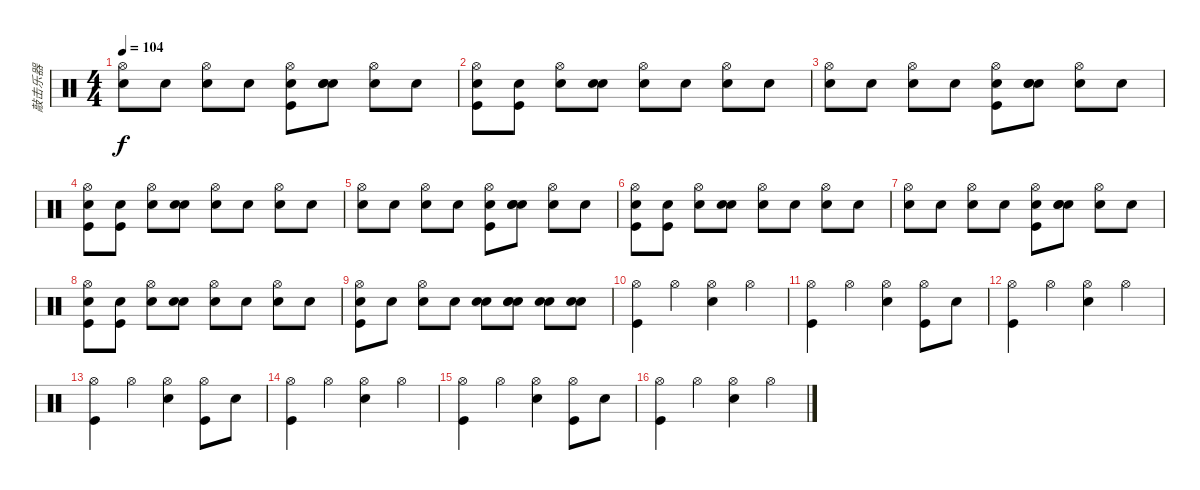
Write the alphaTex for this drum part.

\track ("敲击乐器" "敲击乐器") {instrument percussion}
\staff {score}
\articulation defaults
\ts (4 4)
\tempo 104
\clef neutral
\ks c
("Hi-Hat (open)" "Snare (hit)").8{dy f} "Snare (hit)".8 ("Hi-Hat (open)" "Snare (hit)").8 "Snare (hit)".8 ("Hi-Hat (open)" "Snare (hit)" "Kick (hit)").8 ("Snare (hit) 2" "Electric Snare (hit)" "Snare (hit)").8 ("Hi-Hat (open)" "Snare (hit)").8 "Snare (hit)".8 |
("Hi-Hat (open)" "Snare (hit)" "Kick (hit)").8 ("Snare (hit)" "Kick (hit)").8 ("Hi-Hat (open)" "Snare (hit)").8 ("Snare (hit) 2" "Snare (hit)").8 ("Hi-Hat (open)" "Snare (hit)").8 "Snare (hit)".8 ("Hi-Hat (open)" "Snare (hit)").8 "Snare (hit)".8 |
("Hi-Hat (open)" "Snare (hit)").8 "Snare (hit)".8 ("Hi-Hat (open)" "Snare (hit)").8 "Snare (hit)".8 ("Hi-Hat (open)" "Snare (hit)" "Kick (hit)").8 ("Electric Snare (hit)" "Snare (hit) 2" "Snare (hit)").8 ("Hi-Hat (open)" "Snare (hit)").8 "Snare (hit)".8 |
("Hi-Hat (open)" "Snare (hit)" "Kick (hit)").8 ("Snare (hit)" "Kick (hit)").8 ("Hi-Hat (open)" "Snare (hit)").8 ("Snare (hit) 2" "Snare (hit)").8 ("Hi-Hat (open)" "Snare (hit)").8 "Snare (hit)".8 ("Hi-Hat (open)" "Snare (hit)").8 "Snare (hit)".8 |
("Hi-Hat (open)" "Snare (hit)").8 "Snare (hit)".8 ("Hi-Hat (open)" "Snare (hit)").8 "Snare (hit)".8 ("Hi-Hat (open)" "Snare (hit)" "Kick (hit)").8 ("Snare (hit) 2" "Electric Snare (hit)" "Snare (hit)").8 ("Hi-Hat (open)" "Snare (hit)").8 "Snare (hit)".8 |
("Hi-Hat (open)" "Snare (hit)" "Kick (hit)").8 ("Snare (hit)" "Kick (hit)").8 ("Hi-Hat (open)" "Snare (hit)").8 ("Snare (hit) 2" "Snare (hit)").8 ("Hi-Hat (open)" "Snare (hit)").8 "Snare (hit)".8 ("Hi-Hat (open)" "Snare (hit)").8 "Snare (hit)".8 |
("Hi-Hat (open)" "Snare (hit)").8 "Snare (hit)".8 ("Hi-Hat (open)" "Snare (hit)").8 "Snare (hit)".8 ("Hi-Hat (open)" "Snare (hit)" "Kick (hit)").8 ("Electric Snare (hit)" "Snare (hit) 2" "Snare (hit)").8 ("Hi-Hat (open)" "Snare (hit)").8 "Snare (hit)".8 |
("Hi-Hat (open)" "Snare (hit)" "Kick (hit)").8 ("Snare (hit)" "Kick (hit)").8 ("Hi-Hat (open)" "Snare (hit)").8 ("Snare (hit) 2" "Snare (hit)").8 ("Hi-Hat (open)" "Snare (hit)").8 "Snare (hit)".8 ("Hi-Hat (open)" "Snare (hit)").8 "Snare (hit)".8 |
("Hi-Hat (open)" "Snare (hit)" "Kick (hit)").8 "Snare (hit)".8 ("Hi-Hat (open)" "Snare (hit)").8 "Snare (hit)".8 ("Electric Snare (hit)" "Snare (hit)").8 ("Snare (hit) 2" "Electric Snare (hit)" "Snare (hit)").8 ("Electric Snare (hit)" "Snare (hit)").8 ("Electric Snare (hit)" "Snare (hit)").8 |
("Hi-Hat (open)" "Kick (hit)").4 "Hi-Hat (open)".4 ("Hi-Hat (open)" "Snare (hit) 2").4 "Hi-Hat (open)".4 |
("Hi-Hat (open)" "Kick (hit)").4 "Hi-Hat (open)".4 ("Hi-Hat (open)" "Snare (hit) 2").4 ("Hi-Hat (open)" "Kick (hit)").8 "Electric Snare (hit)".8 |
("Hi-Hat (open)" "Kick (hit)").4 "Hi-Hat (open)".4 ("Hi-Hat (open)" "Snare (hit) 2").4 "Hi-Hat (open)".4 |
("Hi-Hat (open)" "Kick (hit)").4 "Hi-Hat (open)".4 ("Hi-Hat (open)" "Snare (hit) 2").4 ("Hi-Hat (open)" "Kick (hit)").8 "Electric Snare (hit)".8 |
("Hi-Hat (open)" "Kick (hit)").4 "Hi-Hat (open)".4 ("Hi-Hat (open)" "Snare (hit) 2").4 "Hi-Hat (open)".4 |
("Hi-Hat (open)" "Kick (hit)").4 "Hi-Hat (open)".4 ("Hi-Hat (open)" "Snare (hit) 2").4 ("Hi-Hat (open)" "Kick (hit)").8 "Electric Snare (hit)".8 |
("Hi-Hat (open)" "Kick (hit)").4 "Hi-Hat (open)".4 ("Hi-Hat (open)" "Snare (hit) 2").4 "Hi-Hat (open)".4
